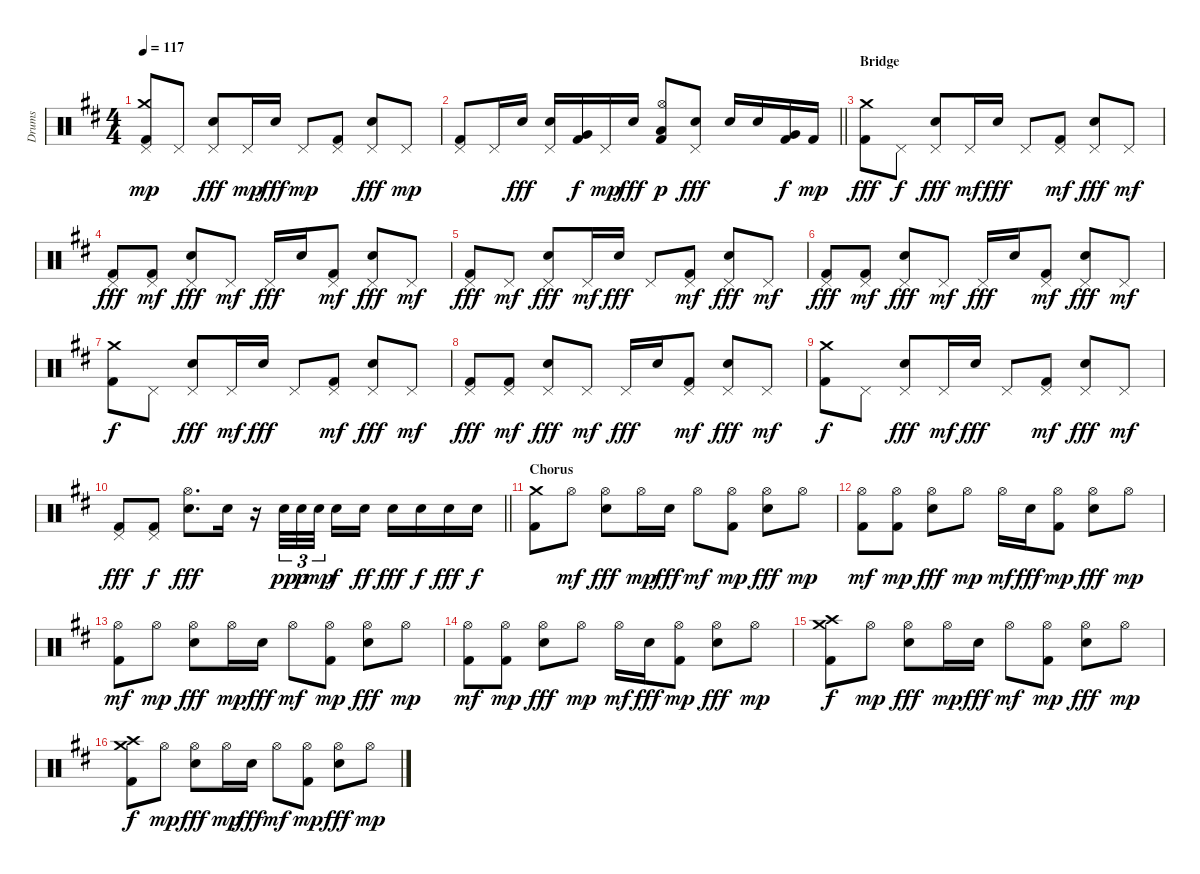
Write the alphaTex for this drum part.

\track ("Drums" "Drums") {instrument percussion}
\staff {score}
\articulation defaults
\ts (4 4)
\tempo 117
\clef neutral
\ks d
("Pedal Hi-Hat (hit)" "Crash medium (hit)" "Kick (hit) 2").8{dy mp} "Pedal Hi-Hat (hit)".8 ("Pedal Hi-Hat (hit)" "Electric Snare (hit)").8{dy fff} "Pedal Hi-Hat (hit)".16{dy mp} "Electric Snare (hit)".16{dy fff} "Pedal Hi-Hat (hit)".8{dy mp} ("Pedal Hi-Hat (hit)" "Kick (hit) 2").8 ("Pedal Hi-Hat (hit)" "Electric Snare (hit)").8{dy fff} "Pedal Hi-Hat (hit)".8{dy mp} |
\barLineRight lightlight
("Pedal Hi-Hat (hit)" "Kick (hit) 2").8 "Pedal Hi-Hat (hit)".16 "Electric Snare (hit)".16{dy fff} ("Pedal Hi-Hat (hit)" "Electric Snare (hit)").16 ("Kick (hit) 2" "Very Low Tom (hit)").16{dy f} "Pedal Hi-Hat (hit)".16{dy mp} "Electric Snare (hit)".16{dy fff} ("Hi-Hat (open)" "Kick (hit) 2" "Low Floor Tom (hit)").8{dy p} ("Pedal Hi-Hat (hit)" "Electric Snare (hit)").8{dy fff} "Electric Snare (hit)".16 "Electric Snare (hit)".16 ("Kick (hit) 2" "Very Low Tom (hit)").16{dy f} "Kick (hit) 2".16{dy mp} |
\section ("" "Bridge")
("Crash medium (hit)" "Kick (hit) 2").8{dy fff} "Pedal Hi-Hat (hit)".8{dy f} ("Pedal Hi-Hat (hit)" "Electric Snare (hit)").8{dy fff} "Pedal Hi-Hat (hit)".16{dy mf} "Electric Snare (hit)".16{dy fff} "Pedal Hi-Hat (hit)".8 ("Pedal Hi-Hat (hit)" "Kick (hit) 2").8{dy mf} ("Pedal Hi-Hat (hit)" "Electric Snare (hit)").8{dy fff} "Pedal Hi-Hat (hit)".8{dy mf} |
("Pedal Hi-Hat (hit)" "Kick (hit) 2").8{dy fff} ("Pedal Hi-Hat (hit)" "Kick (hit) 2").8{dy mf} ("Pedal Hi-Hat (hit)" "Electric Snare (hit)").8{dy fff} "Pedal Hi-Hat (hit)".8{dy mf} "Pedal Hi-Hat (hit)".16{dy fff} "Electric Snare (hit)".16 ("Pedal Hi-Hat (hit)" "Kick (hit) 2").8{dy mf} ("Pedal Hi-Hat (hit)" "Electric Snare (hit)").8{dy fff} "Pedal Hi-Hat (hit)".8{dy mf} |
("Pedal Hi-Hat (hit)" "Kick (hit) 2").8{dy fff} "Pedal Hi-Hat (hit)".8{dy mf} ("Pedal Hi-Hat (hit)" "Electric Snare (hit)").8{dy fff} "Pedal Hi-Hat (hit)".16{dy mf} "Electric Snare (hit)".16{dy fff} "Pedal Hi-Hat (hit)".8 ("Pedal Hi-Hat (hit)" "Kick (hit) 2").8{dy mf} ("Pedal Hi-Hat (hit)" "Electric Snare (hit)").8{dy fff} "Pedal Hi-Hat (hit)".8{dy mf} |
("Pedal Hi-Hat (hit)" "Kick (hit) 2").8{dy fff} ("Pedal Hi-Hat (hit)" "Kick (hit) 2").8{dy mf} ("Pedal Hi-Hat (hit)" "Electric Snare (hit)").8{dy fff} "Pedal Hi-Hat (hit)".8{dy mf} "Pedal Hi-Hat (hit)".16{dy fff} "Electric Snare (hit)".16 ("Pedal Hi-Hat (hit)" "Kick (hit) 2").8{dy mf} ("Pedal Hi-Hat (hit)" "Electric Snare (hit)").8{dy fff} "Pedal Hi-Hat (hit)".8{dy mf} |
("Crash medium (hit)" "Kick (hit) 2").8{dy f} "Pedal Hi-Hat (hit)".8 ("Pedal Hi-Hat (hit)" "Electric Snare (hit)").8{dy fff} "Pedal Hi-Hat (hit)".16{dy mf} "Electric Snare (hit)".16{dy fff} "Pedal Hi-Hat (hit)".8 ("Pedal Hi-Hat (hit)" "Kick (hit) 2").8{dy mf} ("Pedal Hi-Hat (hit)" "Electric Snare (hit)").8{dy fff} "Pedal Hi-Hat (hit)".8{dy mf} |
("Pedal Hi-Hat (hit)" "Kick (hit) 2").8{dy fff} ("Pedal Hi-Hat (hit)" "Kick (hit) 2").8{dy mf} ("Pedal Hi-Hat (hit)" "Electric Snare (hit)").8{dy fff} "Pedal Hi-Hat (hit)".8{dy mf} "Pedal Hi-Hat (hit)".16{dy fff} "Electric Snare (hit)".16 ("Pedal Hi-Hat (hit)" "Kick (hit) 2").8{dy mf} ("Pedal Hi-Hat (hit)" "Electric Snare (hit)").8{dy fff} "Pedal Hi-Hat (hit)".8{dy mf} |
("Crash medium (hit)" "Kick (hit) 2").8{dy f} "Pedal Hi-Hat (hit)".8 ("Pedal Hi-Hat (hit)" "Electric Snare (hit)").8{dy fff} "Pedal Hi-Hat (hit)".16{dy mf} "Electric Snare (hit)".16{dy fff} "Pedal Hi-Hat (hit)".8 ("Pedal Hi-Hat (hit)" "Kick (hit) 2").8{dy mf} ("Pedal Hi-Hat (hit)" "Electric Snare (hit)").8{dy fff} "Pedal Hi-Hat (hit)".8{dy mf} |
\barLineRight lightlight
("Pedal Hi-Hat (hit)" "Kick (hit) 2").8{dy fff} ("Pedal Hi-Hat (hit)" "Kick (hit) 2").8{dy f} ("Hi-Hat (open)" "Electric Snare (hit)").8{d dy fff} "Electric Snare (hit)".16 r.16 "Electric Snare (hit)".32{tu (3 2) dy pp} "Electric Snare (hit)".32{tu (3 2) dy p} "Electric Snare (hit)".32{tu (3 2) dy mp beam splitsecondary} "Electric Snare (hit)".16{dy f} "Electric Snare (hit)".16{dy ff} "Electric Snare (hit)".16{dy fff} "Electric Snare (hit)".16{dy f} "Electric Snare (hit)".16{dy fff} "Electric Snare (hit)".16{dy f} |
\section ("" "Chorus")
("Crash medium (hit)" "Kick (hit) 2").8 "Hi-Hat (open)".8{dy mf} ("Hi-Hat (open)" "Electric Snare (hit)").8{dy fff} "Hi-Hat (open)".16{dy mp} "Electric Snare (hit)".16{dy fff} "Hi-Hat (open)".8{dy mf} ("Hi-Hat (open)" "Kick (hit) 2").8{dy mp} ("Hi-Hat (open)" "Electric Snare (hit)").8{dy fff} "Hi-Hat (open)".8{dy mp} |
("Hi-Hat (open)" "Kick (hit) 2").8{dy mf} ("Hi-Hat (open)" "Kick (hit) 2").8{dy mp} ("Hi-Hat (open)" "Electric Snare (hit)").8{dy fff} "Hi-Hat (open)".8{dy mp} "Hi-Hat (open)".16{dy mf} "Electric Snare (hit)".16{dy fff} ("Hi-Hat (open)" "Kick (hit) 2").8{dy mp} ("Hi-Hat (open)" "Electric Snare (hit)").8{dy fff} "Hi-Hat (open)".8{dy mp} |
("Hi-Hat (open)" "Kick (hit) 2").8{dy mf} "Hi-Hat (open)".8{dy mp} ("Hi-Hat (open)" "Electric Snare (hit)").8{dy fff} "Hi-Hat (open)".16{dy mp} "Electric Snare (hit)".16{dy fff} "Hi-Hat (open)".8{dy mf} ("Hi-Hat (open)" "Kick (hit) 2").8{dy mp} ("Hi-Hat (open)" "Electric Snare (hit)").8{dy fff} "Hi-Hat (open)".8{dy mp} |
("Hi-Hat (open)" "Kick (hit) 2").8{dy mf} ("Hi-Hat (open)" "Kick (hit) 2").8{dy mp} ("Hi-Hat (open)" "Electric Snare (hit)").8{dy fff} "Hi-Hat (open)".8{dy mp} "Hi-Hat (open)".16{dy mf} "Electric Snare (hit)".16{dy fff} ("Hi-Hat (open)" "Kick (hit) 2").8{dy mp} ("Hi-Hat (open)" "Electric Snare (hit)").8{dy fff} "Hi-Hat (open)".8{dy mp} |
("Crash medium (hit)" "Crash high (hit)" "Kick (hit) 2").8{dy f} "Hi-Hat (open)".8{dy mp} ("Hi-Hat (open)" "Electric Snare (hit)").8{dy fff} "Hi-Hat (open)".16{dy mp} "Electric Snare (hit)".16{dy fff} "Hi-Hat (open)".8{dy mf} ("Hi-Hat (open)" "Kick (hit) 2").8{dy mp} ("Hi-Hat (open)" "Electric Snare (hit)").8{dy fff} "Hi-Hat (open)".8{dy mp} |
("Crash high (hit)" "Crash medium (hit)" "Kick (hit) 2").8{dy f} "Hi-Hat (open)".8{dy mp} ("Hi-Hat (open)" "Electric Snare (hit)").8{dy fff} "Hi-Hat (open)".16{dy mp} "Electric Snare (hit)".16{dy fff} "Hi-Hat (open)".8{dy mf} ("Hi-Hat (open)" "Kick (hit) 2").8{dy mp} ("Hi-Hat (open)" "Electric Snare (hit)").8{dy fff} "Hi-Hat (open)".8{dy mp}
